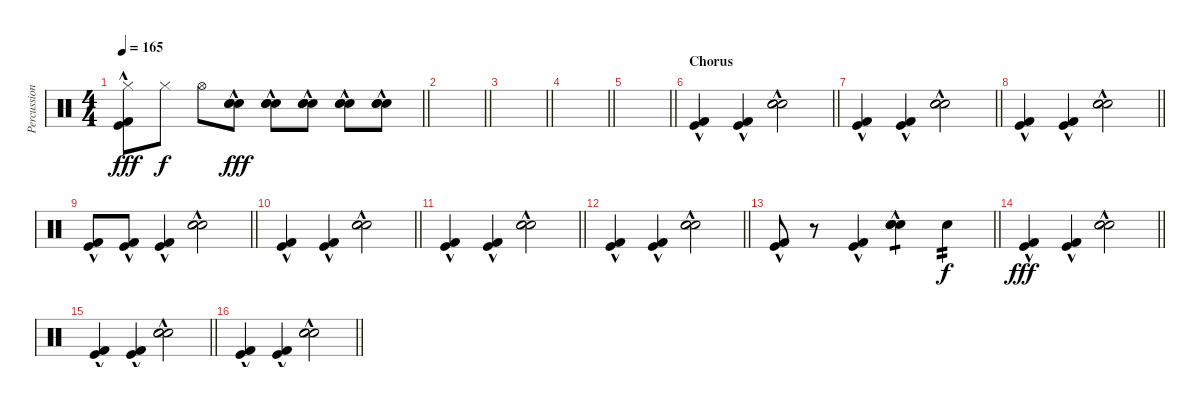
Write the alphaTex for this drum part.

\track ("Percussion" "Percussion") {instrument percussion}
\staff {score}
\articulation defaults
\ts (4 4)
\tempo 165
\clef neutral
\barLineRight lightlight
\ks c
("Hi-Hat (closed)" "Kick (hit) 2"{hac} "Kick (hit)"{hac}).8{dy fff} "Hi-Hat (closed)".8{dy f} "Hi-Hat (open)".8 ("Snare (hit) 2"{hac} "Hand Clap (hit)"{hac} "Electric Snare (hit)"{hac}).8{dy fff} ("Snare (hit) 2"{hac} "Hand Clap (hit)"{hac} "Electric Snare (hit)"{hac}).8 ("Snare (hit) 2"{hac} "Hand Clap (hit)"{hac} "Electric Snare (hit)"{hac}).8 ("Snare (hit) 2"{hac} "Hand Clap (hit)"{hac} "Electric Snare (hit)"{hac}).8 ("Snare (hit) 2"{hac} "Hand Clap (hit)"{hac} "Electric Snare (hit)"{hac}).8 |
\barLineRight lightlight
|
\barLineRight lightlight
|
\barLineRight lightlight
|
\barLineRight lightlight
|
\section ("" "Chorus")
\barLineRight lightlight
("Kick (hit) 2"{hac} "Kick (hit)"{hac}).4 ("Kick (hit) 2"{hac} "Kick (hit)"{hac}).4 ("Snare (hit) 2"{hac} "Hand Clap (hit)"{hac} "Electric Snare (hit)"{hac}).2 |
\barLineRight lightlight
("Kick (hit) 2"{hac} "Kick (hit)"{hac}).4 ("Kick (hit) 2"{hac} "Kick (hit)"{hac}).4 ("Snare (hit) 2" "Hand Clap (hit)"{hac} "Electric Snare (hit)").2 |
\barLineRight lightlight
("Kick (hit) 2"{hac} "Kick (hit)"{hac}).4 ("Kick (hit) 2"{hac} "Kick (hit)"{hac}).4 ("Snare (hit) 2" "Hand Clap (hit)"{hac} "Electric Snare (hit)").2 |
\barLineRight lightlight
("Kick (hit) 2"{hac} "Kick (hit)"{hac}).8 ("Kick (hit) 2"{hac} "Kick (hit)"{hac}).8 ("Kick (hit) 2"{hac} "Kick (hit)"{hac}).4 ("Snare (hit) 2" "Hand Clap (hit)"{hac} "Electric Snare (hit)").2 |
\barLineRight lightlight
("Kick (hit) 2"{hac} "Kick (hit)"{hac}).4 ("Kick (hit) 2"{hac} "Kick (hit)"{hac}).4 ("Snare (hit) 2"{hac} "Hand Clap (hit)"{hac} "Electric Snare (hit)"{hac}).2 |
\barLineRight lightlight
("Kick (hit) 2"{hac} "Kick (hit)"{hac}).4 ("Kick (hit) 2"{hac} "Kick (hit)"{hac}).4 ("Snare (hit) 2" "Hand Clap (hit)"{hac} "Electric Snare (hit)").2 |
\barLineRight lightlight
("Kick (hit) 2"{hac} "Kick (hit)"{hac}).4 ("Kick (hit) 2"{hac} "Kick (hit)"{hac}).4 ("Snare (hit) 2" "Hand Clap (hit)"{hac} "Electric Snare (hit)").2 |
\barLineRight lightlight
("Kick (hit) 2"{hac} "Kick (hit)"{hac}).8 r.8 ("Kick (hit) 2"{hac} "Kick (hit)"{hac}).4 ("Snare (hit) 2" "Hand Clap (hit)"{hac} "Electric Snare (hit)").4{tp 1} "Electric Snare (hit)".4{tp 2 dy f} |
\barLineRight lightlight
("Kick (hit) 2"{hac} "Kick (hit)"{hac}).4{dy fff} ("Kick (hit) 2"{hac} "Kick (hit)"{hac}).4 ("Snare (hit) 2" "Hand Clap (hit)"{hac} "Electric Snare (hit)").2 |
\barLineRight lightlight
("Kick (hit) 2"{hac} "Kick (hit)"{hac}).4 ("Kick (hit) 2"{hac} "Kick (hit)"{hac}).4 ("Snare (hit) 2" "Hand Clap (hit)"{hac} "Electric Snare (hit)").2 |
\barLineRight lightlight
("Kick (hit) 2"{hac} "Kick (hit)"{hac}).4 ("Kick (hit) 2"{hac} "Kick (hit)"{hac}).4 ("Snare (hit) 2" "Hand Clap (hit)"{hac} "Electric Snare (hit)").2
